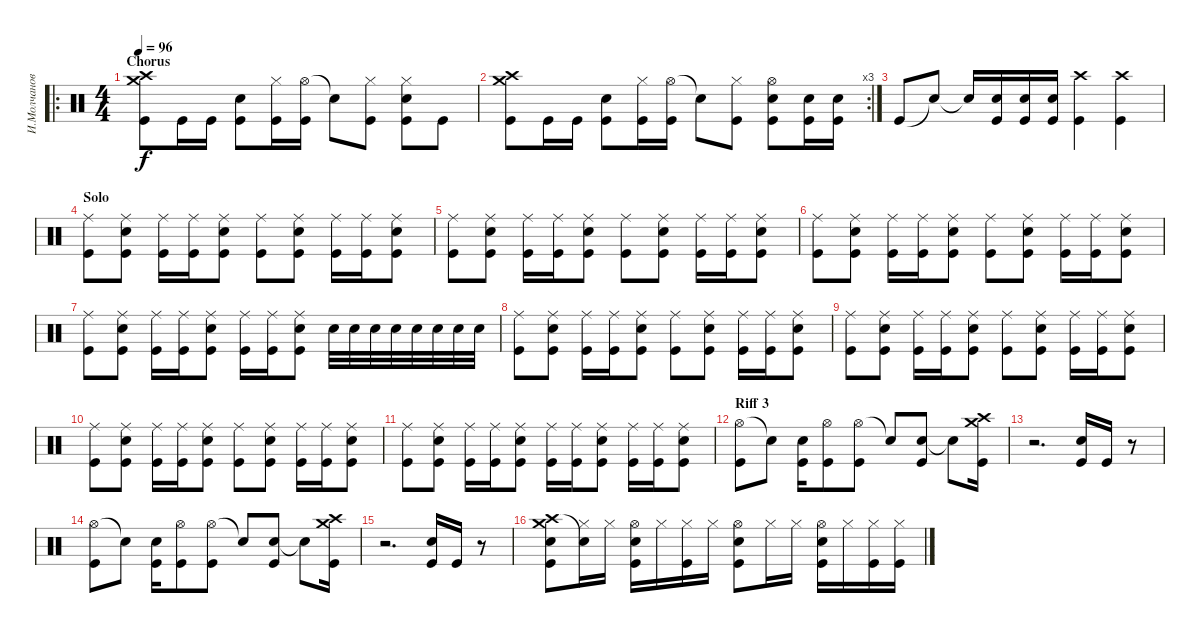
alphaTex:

\track ("И.Молчанов" "И.Молчанов") {instrument percussion}
\staff {score}
\articulation defaults
\ro
\ts (4 4)
\section ("" "Chorus")
\tempo 96
\clef neutral
\ks c
("Crash medium (hit)" "Crash high (hit)" "Kick (hit)").8{dy f} "Kick (hit)".16 "Kick (hit)".16 ("Snare (hit) 2" "Kick (hit)").8 ("Hi-Hat (closed)" "Kick (hit)").16 ("Hi-Hat (open)" "Kick (hit)").16 "Snare (hit)"{t}.8 ("Hi-Hat (closed)" "Kick (hit)").8 ("Hi-Hat (closed)" "Snare (hit) 2" "Kick (hit)").8 "Kick (hit)".8 |
\rc 3
("Crash medium (hit)" "Crash high (hit)" "Kick (hit)").8 "Kick (hit)".16 "Kick (hit)".16 ("Snare (hit) 2" "Kick (hit)").8 ("Hi-Hat (closed)" "Kick (hit)").16 ("Hi-Hat (open)" "Kick (hit)").16 "Snare (hit)"{t}.8 ("Hi-Hat (closed)" "Kick (hit)").8 ("Hi-Hat (open)" "Snare (hit) 2" "Kick (hit)").8 ("Snare (hit) 2" "Kick (hit)").16 ("Snare (hit) 2" "Kick (hit)").16 |
"Kick (hit)".8 "Snare (hit)"{t}.8 "Snare (hit)"{t}.16 ("Snare (hit) 2" "Kick (hit)").16 ("Snare (hit) 2" "Kick (hit)").16 ("Snare (hit) 2" "Kick (hit)").16 ("Crash high (hit)" "Kick (hit)").4 ("Crash high (hit)" "Kick (hit)").4 |
\section ("" "Solo")
("Ride (middle)" "Kick (hit)").8 ("Ride (middle)" "Snare (hit) 2" "Kick (hit)").8 ("Ride (middle)" "Kick (hit)").16 ("Ride (middle)" "Kick (hit)").16 ("Ride (middle)" "Snare (hit) 2" "Kick (hit)").8 ("Ride (middle)" "Kick (hit)").8 ("Ride (middle)" "Snare (hit) 2" "Kick (hit)").8 ("Ride (middle)" "Kick (hit)").16 ("Ride (middle)" "Kick (hit)").16 ("Ride (middle)" "Snare (hit) 2" "Kick (hit)").8 |
("Ride (middle)" "Kick (hit)").8 ("Ride (middle)" "Snare (hit) 2" "Kick (hit)").8 ("Ride (middle)" "Kick (hit)").16 ("Ride (middle)" "Kick (hit)").16 ("Ride (middle)" "Snare (hit) 2" "Kick (hit)").8 ("Ride (middle)" "Kick (hit)").8 ("Ride (middle)" "Snare (hit) 2" "Kick (hit)").8 ("Ride (middle)" "Kick (hit)").16 ("Ride (middle)" "Kick (hit)").16 ("Ride (middle)" "Snare (hit) 2" "Kick (hit)").8 |
("Ride (middle)" "Kick (hit)").8 ("Ride (middle)" "Snare (hit) 2" "Kick (hit)").8 ("Ride (middle)" "Kick (hit)").16 ("Ride (middle)" "Kick (hit)").16 ("Ride (middle)" "Snare (hit) 2" "Kick (hit)").8 ("Ride (middle)" "Kick (hit)").8 ("Ride (middle)" "Snare (hit) 2" "Kick (hit)").8 ("Ride (middle)" "Kick (hit)").16 ("Ride (middle)" "Kick (hit)").16 ("Ride (middle)" "Snare (hit) 2" "Kick (hit)").8 |
("Ride (middle)" "Kick (hit)").8 ("Ride (middle)" "Snare (hit) 2" "Kick (hit)").8 ("Ride (middle)" "Kick (hit)").16 ("Ride (middle)" "Kick (hit)").16 ("Ride (middle)" "Snare (hit) 2" "Kick (hit)").8 ("Ride (middle)" "Kick (hit)").16 ("Ride (middle)" "Kick (hit)").16 ("Ride (middle)" "Snare (hit) 2" "Kick (hit)").8 "Snare (hit) 2".32 "Snare (hit) 2".32 "Snare (hit) 2".32 "Snare (hit) 2".32 "Snare (hit) 2".32 "Snare (hit) 2".32 "Snare (hit) 2".32 "Snare (hit) 2".32 |
("Ride (middle)" "Kick (hit)").8 ("Ride (middle)" "Snare (hit) 2" "Kick (hit)").8 ("Ride (middle)" "Kick (hit)").16 ("Ride (middle)" "Kick (hit)").16 ("Ride (middle)" "Snare (hit) 2" "Kick (hit)").8 ("Ride (middle)" "Kick (hit)").8 ("Ride (middle)" "Snare (hit) 2" "Kick (hit)").8 ("Ride (middle)" "Kick (hit)").16 ("Ride (middle)" "Kick (hit)").16 ("Ride (middle)" "Snare (hit) 2" "Kick (hit)").8 |
("Ride (middle)" "Kick (hit)").8 ("Ride (middle)" "Snare (hit) 2" "Kick (hit)").8 ("Ride (middle)" "Kick (hit)").16 ("Ride (middle)" "Kick (hit)").16 ("Ride (middle)" "Snare (hit) 2" "Kick (hit)").8 ("Ride (middle)" "Kick (hit)").8 ("Ride (middle)" "Snare (hit) 2" "Kick (hit)").8 ("Ride (middle)" "Kick (hit)").16 ("Ride (middle)" "Kick (hit)").16 ("Ride (middle)" "Snare (hit) 2" "Kick (hit)").8 |
("Ride (middle)" "Kick (hit)").8 ("Ride (middle)" "Snare (hit) 2" "Kick (hit)").8 ("Ride (middle)" "Kick (hit)").16 ("Ride (middle)" "Kick (hit)").16 ("Ride (middle)" "Snare (hit) 2" "Kick (hit)").8 ("Ride (middle)" "Kick (hit)").8 ("Ride (middle)" "Snare (hit) 2" "Kick (hit)").8 ("Ride (middle)" "Kick (hit)").16 ("Ride (middle)" "Kick (hit)").16 ("Ride (middle)" "Snare (hit) 2" "Kick (hit)").8 |
("Ride (middle)" "Kick (hit)").8 ("Ride (middle)" "Snare (hit) 2" "Kick (hit)").8 ("Ride (middle)" "Kick (hit)").16 ("Ride (middle)" "Kick (hit)").16 ("Ride (middle)" "Snare (hit) 2" "Kick (hit)").8 ("Ride (middle)" "Kick (hit)").16 ("Ride (middle)" "Kick (hit)").16 ("Ride (middle)" "Snare (hit) 2" "Kick (hit)").8 ("Ride (middle)" "Kick (hit)").16 ("Ride (middle)" "Kick (hit)").16 ("Ride (middle)" "Snare (hit) 2" "Kick (hit)").8 |
\section ("" "Riff 3")
("Hi-Hat (open)" "Kick (hit)").8 "Snare (hit)"{t}.8 ("Snare (hit) 2" "Kick (hit)").16 ("Hi-Hat (open)" "Kick (hit)").8 ("Hi-Hat (open)" "Kick (hit)").8 "Snare (hit)"{t}.8 ("Snare (hit) 2" "Kick (hit)").8 "Snare (hit)"{t}.8 ("Crash high (hit)" "Crash medium (hit)" "Kick (hit)").16 |
r.2{d} ("Snare (hit) 2" "Kick (hit)").16 "Kick (hit)".16 r.8 |
("Hi-Hat (open)" "Kick (hit)").8 "Snare (hit)"{t}.8 ("Snare (hit) 2" "Kick (hit)").16 ("Hi-Hat (open)" "Kick (hit)").8 ("Hi-Hat (open)" "Kick (hit)").8 "Snare (hit)"{t}.8 ("Snare (hit) 2" "Kick (hit)").8 "Snare (hit)"{t}.8 ("Crash high (hit)" "Crash medium (hit)" "Kick (hit)").16 |
r.2{d} ("Snare (hit) 2" "Kick (hit)").16 "Kick (hit)".16 r.8 |
("Crash medium (hit)" "Crash high (hit)" "Snare (hit) 2" "Kick (hit)").8 ("Hi-Hat (closed)" "Snare (hit)"{t}).16 "Hi-Hat (closed)".16 ("Hi-Hat (open)" "Snare (hit) 2" "Kick (hit)").16 "Hi-Hat (closed)".16 ("Hi-Hat (closed)" "Kick (hit)").16 "Hi-Hat (closed)".16 ("Hi-Hat (open)" "Snare (hit) 2" "Kick (hit)").8 "Hi-Hat (closed)".16 "Hi-Hat (closed)".16 ("Hi-Hat (open)" "Snare (hit) 2" "Kick (hit)").16 "Hi-Hat (closed)".16 ("Hi-Hat (closed)" "Kick (hit)").16 ("Hi-Hat (closed)" "Kick (hit)").16
